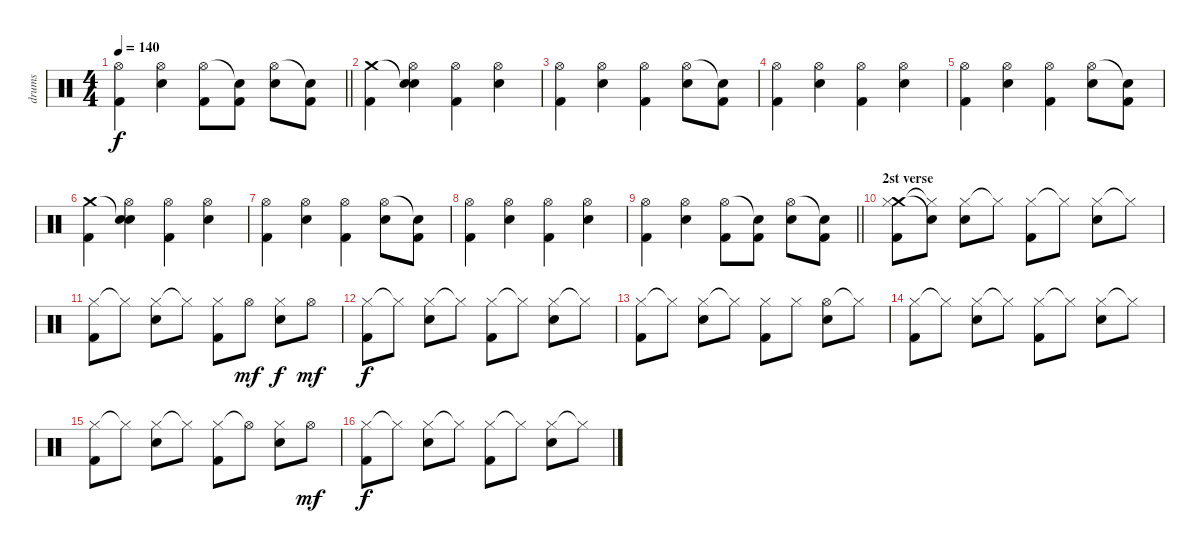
\track ("drums" "drums") {instrument percussion}
\staff {score}
\articulation defaults
\ts (4 4)
\tempo 140
\clef neutral
\barLineRight lightlight
\ks c
("Hi-Hat (open)" "Kick (hit) 2").4{dy f} ("Hi-Hat (open)" "Electric Snare (hit)").4 ("Hi-Hat (open)" "Kick (hit) 2").8 ("Snare (hit)"{t} "Kick (hit) 2").8 ("Hi-Hat (open)" "Electric Snare (hit)").8 ("Snare (hit)"{t} "Kick (hit) 2").8 |
("Crash medium (hit)" "Kick (hit) 2").4 ("Snare (hit)"{t} "Hi-Hat (open)" "Electric Snare (hit)").4 ("Hi-Hat (open)" "Kick (hit) 2").4 ("Hi-Hat (open)" "Electric Snare (hit)").4 |
("Hi-Hat (open)" "Kick (hit) 2").4 ("Hi-Hat (open)" "Electric Snare (hit)").4 ("Hi-Hat (open)" "Kick (hit) 2").4 ("Hi-Hat (open)" "Electric Snare (hit)").8 ("Snare (hit)"{t} "Kick (hit) 2").8 |
("Hi-Hat (open)" "Kick (hit) 2").4 ("Hi-Hat (open)" "Electric Snare (hit)").4 ("Hi-Hat (open)" "Kick (hit) 2").4 ("Hi-Hat (open)" "Electric Snare (hit)").4 |
("Hi-Hat (open)" "Kick (hit) 2").4 ("Hi-Hat (open)" "Electric Snare (hit)").4 ("Hi-Hat (open)" "Kick (hit) 2").4 ("Hi-Hat (open)" "Electric Snare (hit)").8 ("Snare (hit)"{t} "Kick (hit) 2").8 |
("Crash medium (hit)" "Kick (hit) 2").4 ("Snare (hit)"{t} "Hi-Hat (open)" "Electric Snare (hit)").4 ("Hi-Hat (open)" "Kick (hit) 2").4 ("Hi-Hat (open)" "Electric Snare (hit)").4 |
("Hi-Hat (open)" "Kick (hit) 2").4 ("Hi-Hat (open)" "Electric Snare (hit)").4 ("Hi-Hat (open)" "Kick (hit) 2").4 ("Hi-Hat (open)" "Electric Snare (hit)").8 ("Snare (hit)"{t} "Kick (hit) 2").8 |
("Hi-Hat (open)" "Kick (hit) 2").4 ("Hi-Hat (open)" "Electric Snare (hit)").4 ("Hi-Hat (open)" "Kick (hit) 2").4 ("Hi-Hat (open)" "Electric Snare (hit)").4 |
\barLineRight lightlight
("Hi-Hat (open)" "Kick (hit) 2").4 ("Hi-Hat (open)" "Electric Snare (hit)").4 ("Hi-Hat (open)" "Kick (hit) 2").8 ("Snare (hit)"{t} "Kick (hit) 2").8 ("Hi-Hat (open)" "Electric Snare (hit)").8 ("Snare (hit)"{t} "Kick (hit) 2").8 |
\section ("" "2st verse")
("Crash medium (hit)" "Hi-Hat (closed)" "Kick (hit) 2").8 ("Snare (hit)"{t} "Hi-Hat (closed)"{t}).8 ("Hi-Hat (closed)" "Electric Snare (hit)").8 "Hi-Hat (closed)"{t}.8 ("Hi-Hat (closed)" "Kick (hit) 2").8 "Hi-Hat (closed)"{t}.8 ("Hi-Hat (closed)" "Electric Snare (hit)").8 "Hi-Hat (closed)"{t}.8 |
("Hi-Hat (closed)" "Kick (hit) 2").8 "Hi-Hat (closed)"{t}.8 ("Hi-Hat (closed)" "Electric Snare (hit)").8 "Hi-Hat (closed)"{t}.8 ("Hi-Hat (closed)" "Kick (hit) 2").8 "Hi-Hat (open)".8{dy mf} ("Hi-Hat (closed)" "Electric Snare (hit)").8{dy f} "Hi-Hat (open)".8{dy mf} |
("Hi-Hat (closed)" "Kick (hit) 2").8{dy f} "Hi-Hat (closed)"{t}.8 ("Hi-Hat (closed)" "Electric Snare (hit)").8 "Hi-Hat (closed)"{t}.8 ("Hi-Hat (closed)" "Kick (hit) 2").8 "Hi-Hat (closed)"{t}.8 ("Hi-Hat (closed)" "Electric Snare (hit)").8 "Hi-Hat (closed)"{t}.8 |
("Hi-Hat (closed)" "Kick (hit) 2").8 "Hi-Hat (closed)"{t}.8 ("Hi-Hat (closed)" "Electric Snare (hit)").8 "Hi-Hat (closed)"{t}.8 ("Hi-Hat (closed)" "Kick (hit) 2").8 "Hi-Hat (closed)".8 ("Hi-Hat (open)" "Electric Snare (hit)").8 "Hi-Hat (closed)"{t}.8 |
("Hi-Hat (closed)" "Kick (hit) 2").8 "Hi-Hat (closed)"{t}.8 ("Hi-Hat (closed)" "Electric Snare (hit)").8 "Hi-Hat (closed)"{t}.8 ("Hi-Hat (closed)" "Kick (hit) 2").8 "Hi-Hat (closed)"{t}.8 ("Hi-Hat (closed)" "Electric Snare (hit)").8 "Hi-Hat (closed)"{t}.8 |
("Hi-Hat (closed)" "Kick (hit) 2").8 "Hi-Hat (closed)"{t}.8 ("Hi-Hat (closed)" "Electric Snare (hit)").8 "Hi-Hat (closed)"{t}.8 ("Hi-Hat (closed)" "Kick (hit) 2").8 "Hi-Hat (open)"{t}.8 ("Hi-Hat (closed)" "Electric Snare (hit)").8 "Hi-Hat (open)".8{dy mf} |
("Hi-Hat (closed)" "Kick (hit) 2").8{dy f} "Hi-Hat (closed)"{t}.8 ("Hi-Hat (closed)" "Electric Snare (hit)").8 "Hi-Hat (closed)"{t}.8 ("Hi-Hat (closed)" "Kick (hit) 2").8 "Hi-Hat (closed)"{t}.8 ("Hi-Hat (closed)" "Electric Snare (hit)").8 "Hi-Hat (closed)"{t}.8
